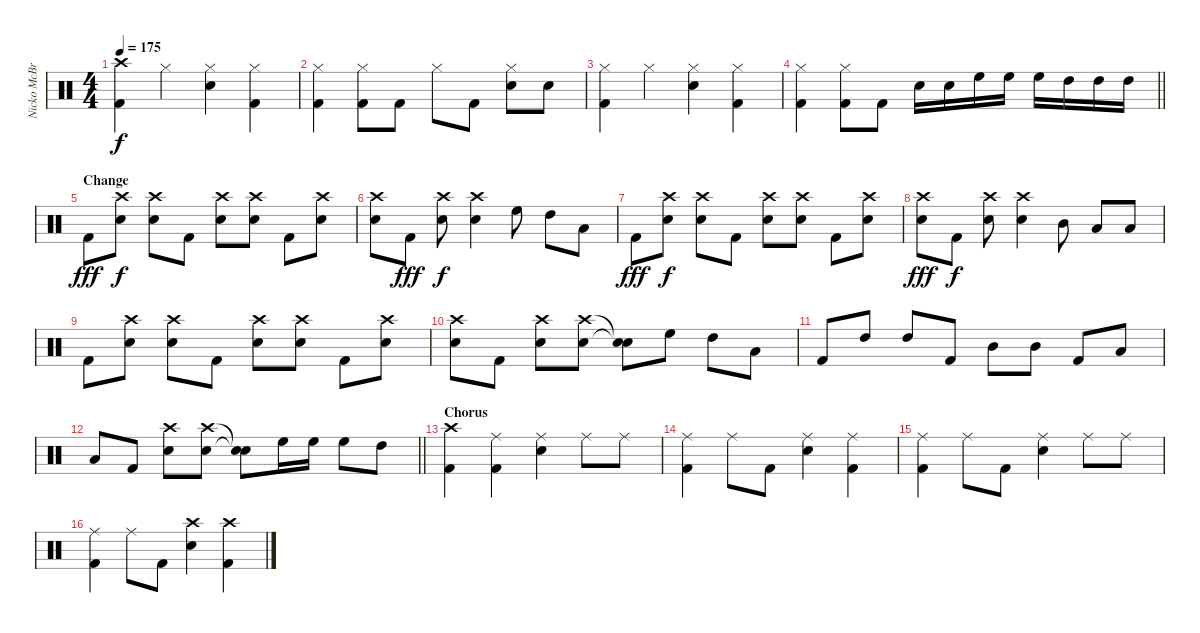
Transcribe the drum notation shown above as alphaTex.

\track ("Nicko McBrian" "Nicko McBr") {instrument percussion}
\staff {score}
\articulation defaults
\ts (4 4)
\tempo 175
\clef neutral
\ks c
("Crash high (hit)" "Kick (hit) 2").4{dy f} "Hi-Hat (closed)".4 ("Hi-Hat (closed)" "Electric Snare (hit)").4 ("Hi-Hat (closed)" "Kick (hit) 2").4 |
("Hi-Hat (closed)" "Kick (hit) 2").4 ("Hi-Hat (closed)" "Kick (hit) 2").8 "Kick (hit) 2".8 "Hi-Hat (closed)".8 "Kick (hit) 2".8 ("Hi-Hat (closed)" "Electric Snare (hit)").8 "Electric Snare (hit)".8 |
("Hi-Hat (closed)" "Kick (hit) 2").4 "Hi-Hat (closed)".4 ("Hi-Hat (closed)" "Electric Snare (hit)").4 ("Hi-Hat (closed)" "Kick (hit) 2").4 |
\barLineRight lightlight
("Hi-Hat (closed)" "Kick (hit) 2").4 ("Hi-Hat (closed)" "Kick (hit) 2").8 "Kick (hit) 2".8 "Electric Snare (hit)".16 "Electric Snare (hit)".16 "High Floor Tom (hit)".16 "High Floor Tom (hit)".16 "High Floor Tom (hit)".16 "High Tom (hit)".16 "High Tom (hit)".16 "High Tom (hit)".16 |
\section ("" "Change")
"Kick (hit) 2".8{dy fff} ("Crash high (hit)" "Electric Snare (hit)").8{dy f} ("Crash high (hit)" "Electric Snare (hit)").8 "Kick (hit) 2".8 ("Crash high (hit)" "Electric Snare (hit)").8 ("Crash high (hit)" "Electric Snare (hit)").8 "Kick (hit) 2".8 ("Crash high (hit)" "Electric Snare (hit)").8 |
("Crash high (hit)" "Electric Snare (hit)").8 "Kick (hit) 2".8{dy fff} ("Crash high (hit)" "Electric Snare (hit)").8{dy f} ("Crash high (hit)" "Electric Snare (hit)").4 "High Floor Tom (hit)".8 "High Tom (hit)".8 "Low Tom (hit)".8 |
"Kick (hit) 2".8{dy fff} ("Crash high (hit)" "Electric Snare (hit)").8{dy f} ("Crash high (hit)" "Electric Snare (hit)").8 "Kick (hit) 2".8 ("Crash high (hit)" "Electric Snare (hit)").8 ("Crash high (hit)" "Electric Snare (hit)").8 "Kick (hit) 2".8 ("Crash high (hit)" "Electric Snare (hit)").8 |
("Crash high (hit)" "Electric Snare (hit)").8{dy fff} "Kick (hit) 2".8{dy f} ("Crash high (hit)" "Electric Snare (hit)").8 ("Crash high (hit)" "Electric Snare (hit)").4 "Mid Tom (hit)".8 "Low Tom (hit)".8 "Low Floor Tom (hit)".8 |
"Kick (hit) 2".8 ("Crash high (hit)" "Electric Snare (hit)").8 ("Crash high (hit)" "Electric Snare (hit)").8 "Kick (hit) 2".8 ("Crash high (hit)" "Electric Snare (hit)").8 ("Crash high (hit)" "Electric Snare (hit)").8 "Kick (hit) 2".8 ("Crash high (hit)" "Electric Snare (hit)").8 |
("Crash high (hit)" "Electric Snare (hit)").8 "Kick (hit) 2".8 ("Crash high (hit)" "Electric Snare (hit)").8 ("Crash high (hit)" "Electric Snare (hit)").8 ("Snare (hit)"{t} "Snare (hit)"{t}).8 "High Floor Tom (hit)".8 "High Tom (hit)".8 "Low Tom (hit)".8 |
"Kick (hit) 2".8 "High Tom (hit)".8 "High Tom (hit)".8 "Kick (hit) 2".8 "Mid Tom (hit)".8 "Mid Tom (hit)".8 "Kick (hit) 2".8 "Low Tom (hit)".8 |
\barLineRight lightlight "Low Tom (hit)".8 "Kick (hit) 2".8
("Crash high (hit)" "Electric Snare (hit)").8 ("Crash high (hit)" "Electric Snare (hit)").8 ("Snare (hit)"{t} "Snare (hit)"{t}).8 "High Floor Tom (hit)".16 "High Floor Tom (hit)".16 "High Floor Tom (hit)".8 "High Tom (hit)".8 |
\section ("" "Chorus")
("Crash high (hit)" "Kick (hit) 2").4 ("Ride (middle)" "Kick (hit) 2").4 ("Ride (middle)" "Electric Snare (hit)").4 "Ride (middle)".8 "Ride (middle)".8 |
("Ride (middle)" "Kick (hit) 2").4 "Ride (middle)".8 "Kick (hit) 2".8 ("Ride (middle)" "Electric Snare (hit)").4 ("Ride (middle)" "Kick (hit) 2").4 |
("Ride (middle)" "Kick (hit) 2").4 "Ride (middle)".8 "Kick (hit) 2".8 ("Ride (middle)" "Electric Snare (hit)").4 "Ride (middle)".8 "Ride (middle)".8 |
("Ride (middle)" "Kick (hit) 2").4 "Ride (middle)".8 "Kick (hit) 2".8 ("Crash high (hit)" "Electric Snare (hit)").4 ("Crash high (hit)" "Kick (hit) 2").4
